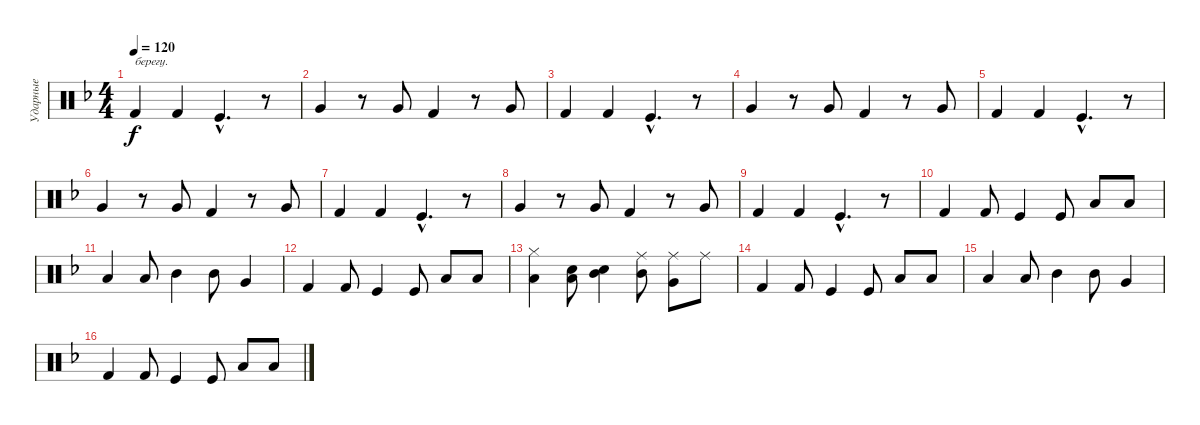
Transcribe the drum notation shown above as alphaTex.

\track ("Ударные" "Ударные") {instrument percussion}
\staff {score}
\articulation defaults
\ts (4 4)
\tempo 120
\clef neutral
\ks f "Kick (hit) 2".4{txt "берегу." dy f} "Kick (hit) 2".4 "Kick (hit)"{hac}.4{d}
r.8 |
"Very Low Tom (hit)".4 r.8 "Very Low Tom (hit)".8 "Kick (hit) 2".4 r.8 "Very Low Tom (hit)".8 |
"Kick (hit) 2".4 "Kick (hit) 2".4 "Kick (hit)"{hac}.4{d} r.8 |
"Very Low Tom (hit)".4 r.8 "Very Low Tom (hit)".8 "Kick (hit) 2".4 r.8 "Very Low Tom (hit)".8 |
"Kick (hit) 2".4 "Kick (hit) 2".4 "Kick (hit)"{hac}.4{d} r.8 |
"Very Low Tom (hit)".4 r.8 "Very Low Tom (hit)".8 "Kick (hit) 2".4 r.8 "Very Low Tom (hit)".8 |
"Kick (hit) 2".4 "Kick (hit) 2".4 "Kick (hit)"{hac}.4{d} r.8 |
"Very Low Tom (hit)".4 r.8 "Very Low Tom (hit)".8 "Kick (hit) 2".4 r.8 "Very Low Tom (hit)".8 |
"Kick (hit) 2".4 "Kick (hit) 2".4 "Kick (hit)"{hac}.4{d} r.8 |
"Kick (hit) 2".4 "Kick (hit) 2".8 "Kick (hit)".4 "Kick (hit)".8 "Low Tom (hit)".8 "Low Tom (hit)".8 |
"Low Tom (hit)".4 "Low Tom (hit)".8 "Mid Tom (hit)".4 "Mid Tom (hit)".8 "Very Low Tom (hit)".4 |
"Kick (hit) 2".4 "Kick (hit) 2".8 "Kick (hit)".4 "Kick (hit)".8 "Low Tom (hit)".8 "Low Tom (hit)".8 |
("Low Tom (hit)" "Hi-Hat (closed)").4 ("Low Tom (hit)" "Metronome (bell)").8 ("Mid Tom (hit)" "Metronome (bell)").4 ("Ride (middle)" "Mid Tom (hit)").8 ("Ride (middle)" "Very Low Tom (hit)").8 "Ride (middle)".8 |
"Kick (hit) 2".4 "Kick (hit) 2".8 "Kick (hit)".4 "Kick (hit)".8 "Low Tom (hit)".8 "Low Tom (hit)".8 |
"Low Tom (hit)".4 "Low Tom (hit)".8 "Mid Tom (hit)".4 "Mid Tom (hit)".8 "Very Low Tom (hit)".4 |
"Kick (hit) 2".4 "Kick (hit) 2".8 "Kick (hit)".4 "Kick (hit)".8 "Low Tom (hit)".8 "Low Tom (hit)".8
